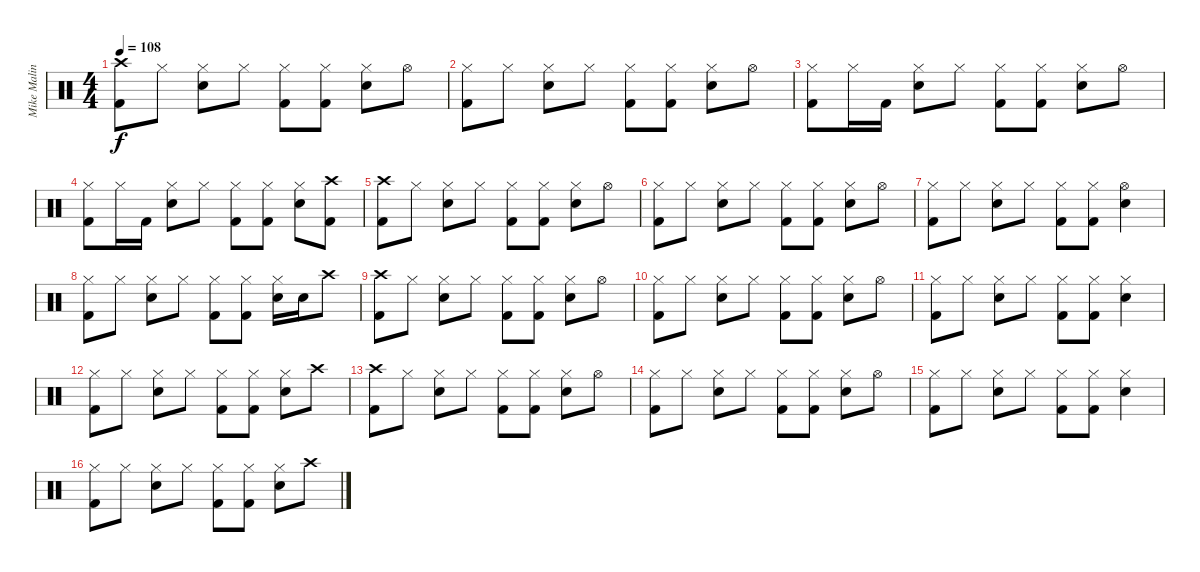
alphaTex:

\track ("Mike Malinin (Drums)" "Mike Malin") {instrument percussion}
\staff {score}
\articulation defaults
\ts (4 4)
\tempo 108
\clef neutral
\ks c
("Crash high (hit)" "Kick (hit) 2").8{dy f} "Hi-Hat (closed)".8 ("Hi-Hat (closed)" "Electric Snare (hit)").8 "Hi-Hat (closed)".8 ("Hi-Hat (closed)" "Kick (hit) 2").8 ("Hi-Hat (closed)" "Kick (hit) 2").8 ("Hi-Hat (closed)" "Electric Snare (hit)").8 "Hi-Hat (open)".8 |
("Hi-Hat (closed)" "Kick (hit) 2").8 "Hi-Hat (closed)".8 ("Hi-Hat (closed)" "Electric Snare (hit)").8 "Hi-Hat (closed)".8 ("Hi-Hat (closed)" "Kick (hit) 2").8 ("Hi-Hat (closed)" "Kick (hit) 2").8 ("Hi-Hat (closed)" "Electric Snare (hit)").8 "Hi-Hat (open)".8 |
("Hi-Hat (closed)" "Kick (hit) 2").8 "Hi-Hat (closed)".16 "Kick (hit) 2".16 ("Hi-Hat (closed)" "Electric Snare (hit)").8 "Hi-Hat (closed)".8 ("Hi-Hat (closed)" "Kick (hit) 2").8 ("Hi-Hat (closed)" "Kick (hit) 2").8 ("Hi-Hat (closed)" "Electric Snare (hit)").8 "Hi-Hat (open)".8 |
("Hi-Hat (closed)" "Kick (hit) 2").8 "Hi-Hat (closed)".16 "Kick (hit) 2".16 ("Hi-Hat (closed)" "Electric Snare (hit)").8 "Hi-Hat (closed)".8 ("Hi-Hat (closed)" "Kick (hit) 2").8 ("Hi-Hat (closed)" "Kick (hit) 2").8 ("Hi-Hat (closed)" "Electric Snare (hit)").8 ("Crash high (hit)" "Kick (hit) 2").8 |
("Crash high (hit)" "Kick (hit) 2").8 "Hi-Hat (closed)".8 ("Hi-Hat (closed)" "Electric Snare (hit)").8 "Hi-Hat (closed)".8 ("Hi-Hat (closed)" "Kick (hit) 2").8 ("Hi-Hat (closed)" "Kick (hit) 2").8 ("Hi-Hat (closed)" "Electric Snare (hit)").8 "Hi-Hat (open)".8 |
("Hi-Hat (closed)" "Kick (hit) 2").8 "Hi-Hat (closed)".8 ("Hi-Hat (closed)" "Electric Snare (hit)").8 "Hi-Hat (closed)".8 ("Hi-Hat (closed)" "Kick (hit) 2").8 ("Hi-Hat (closed)" "Kick (hit) 2").8 ("Hi-Hat (closed)" "Electric Snare (hit)").8 "Hi-Hat (open)".8 |
("Hi-Hat (closed)" "Kick (hit) 2").8 "Hi-Hat (closed)".8 ("Hi-Hat (closed)" "Electric Snare (hit)").8 "Hi-Hat (closed)".8 ("Hi-Hat (closed)" "Kick (hit) 2").8 ("Hi-Hat (closed)" "Kick (hit) 2").8 ("Hi-Hat (open)" "Electric Snare (hit)").4 |
("Hi-Hat (closed)" "Kick (hit) 2").8 "Hi-Hat (closed)".8 ("Hi-Hat (closed)" "Electric Snare (hit)").8 "Hi-Hat (closed)".8 ("Hi-Hat (closed)" "Kick (hit) 2").8 ("Hi-Hat (closed)" "Kick (hit) 2").8 ("Hi-Hat (closed)" "Electric Snare (hit)").16 "Electric Snare (hit)".16 "Crash high (hit)".8 |
("Crash high (hit)" "Kick (hit) 2").8 "Hi-Hat (closed)".8 ("Hi-Hat (closed)" "Electric Snare (hit)").8 "Hi-Hat (closed)".8 ("Hi-Hat (closed)" "Kick (hit) 2").8 ("Hi-Hat (closed)" "Kick (hit) 2").8 ("Hi-Hat (closed)" "Electric Snare (hit)").8 "Hi-Hat (open)".8 |
("Hi-Hat (closed)" "Kick (hit) 2").8 "Hi-Hat (closed)".8 ("Hi-Hat (closed)" "Electric Snare (hit)").8 "Hi-Hat (closed)".8 ("Hi-Hat (closed)" "Kick (hit) 2").8 ("Hi-Hat (closed)" "Kick (hit) 2").8 ("Hi-Hat (closed)" "Electric Snare (hit)").8 "Hi-Hat (open)".8 |
("Hi-Hat (closed)" "Kick (hit) 2").8 "Hi-Hat (closed)".8 ("Hi-Hat (closed)" "Electric Snare (hit)").8 "Hi-Hat (closed)".8 ("Hi-Hat (closed)" "Kick (hit) 2").8 ("Hi-Hat (closed)" "Kick (hit) 2").8 ("Hi-Hat (closed)" "Electric Snare (hit)").4 |
("Hi-Hat (closed)" "Kick (hit) 2").8 "Hi-Hat (closed)".8 ("Hi-Hat (closed)" "Electric Snare (hit)").8 "Hi-Hat (closed)".8 ("Hi-Hat (closed)" "Kick (hit) 2").8 ("Hi-Hat (closed)" "Kick (hit) 2").8 ("Hi-Hat (closed)" "Electric Snare (hit)").8 "Crash high (hit)".8 |
("Crash high (hit)" "Kick (hit) 2").8 "Hi-Hat (closed)".8 ("Hi-Hat (closed)" "Electric Snare (hit)").8 "Hi-Hat (closed)".8 ("Hi-Hat (closed)" "Kick (hit) 2").8 ("Hi-Hat (closed)" "Kick (hit) 2").8 ("Hi-Hat (closed)" "Electric Snare (hit)").8 "Hi-Hat (open)".8 |
("Hi-Hat (closed)" "Kick (hit) 2").8 "Hi-Hat (closed)".8 ("Hi-Hat (closed)" "Electric Snare (hit)").8 "Hi-Hat (closed)".8 ("Hi-Hat (closed)" "Kick (hit) 2").8 ("Hi-Hat (closed)" "Kick (hit) 2").8 ("Hi-Hat (closed)" "Electric Snare (hit)").8 "Hi-Hat (open)".8 |
("Hi-Hat (closed)" "Kick (hit) 2").8 "Hi-Hat (closed)".8 ("Hi-Hat (closed)" "Electric Snare (hit)").8 "Hi-Hat (closed)".8 ("Hi-Hat (closed)" "Kick (hit) 2").8 ("Hi-Hat (closed)" "Kick (hit) 2").8 ("Hi-Hat (closed)" "Electric Snare (hit)").4 |
("Hi-Hat (closed)" "Kick (hit) 2").8 "Hi-Hat (closed)".8 ("Hi-Hat (closed)" "Electric Snare (hit)").8 "Hi-Hat (closed)".8 ("Hi-Hat (closed)" "Kick (hit) 2").8 ("Hi-Hat (closed)" "Kick (hit) 2").8 ("Hi-Hat (closed)" "Electric Snare (hit)").8 "Crash high (hit)".8
